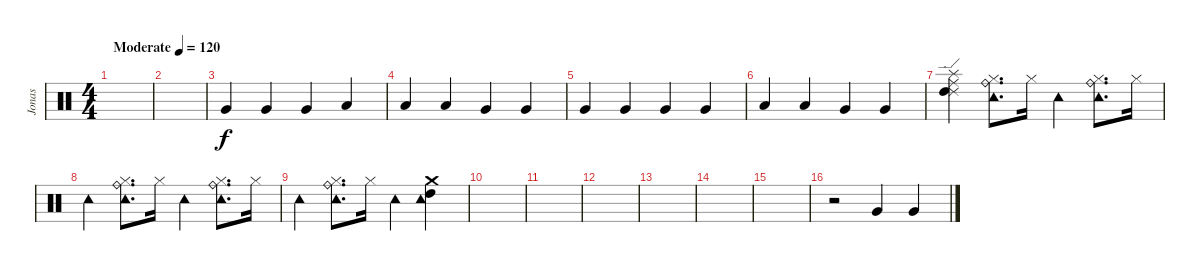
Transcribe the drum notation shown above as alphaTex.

\track ("Jonas" "Jonas") {instrument percussion}
\staff {score}
\articulation defaults
\ts (4 4)
\tempo (120 "Moderate")
\clef neutral
\ks c
|
|
"Very Low Tom (hit)".4 "Very Low Tom (hit)".4 "Very Low Tom (hit)".4 "Low Floor Tom (hit)".4 |
"Low Floor Tom (hit)".4 "Low Floor Tom (hit)".4 "Very Low Tom (hit)".4 "Very Low Tom (hit)".4 |
"Very Low Tom (hit)".4 "Very Low Tom (hit)".4 "Very Low Tom (hit)".4 "Very Low Tom (hit)".4 |
"Low Floor Tom (hit)".4 "Low Floor Tom (hit)".4 "Very Low Tom (hit)".4 "Very Low Tom (hit)".4 |
("Splash (hit)" "Ride (middle)" "Ride (edge) 2" "High Tom (hit)").4 ("Hi-Hat (closed)" "Tambourine (hit)" "Ride (bell)").8{d} "Hi-Hat (closed)".16 "Tambourine (hit)".4 ("Hi-Hat (closed)" "Tambourine (hit)" "Ride (bell)").8{d} "Hi-Hat (closed)".16 |
"Tambourine (hit)".4 ("Hi-Hat (closed)" "Tambourine (hit)" "Ride (bell)").8{d} "Hi-Hat (closed)".16 "Tambourine (hit)".4 ("Hi-Hat (closed)" "Tambourine (hit)" "Ride (bell)").8{d} "Hi-Hat (closed)".16 |
"Tambourine (hit)".4 ("Hi-Hat (closed)" "Tambourine (hit)" "Ride (bell)").8{d} "Hi-Hat (closed)".16 "Tambourine (hit)".4 ("High Tom (hit)" "Crash medium (hit)" "Tambourine (hit)").4 |
|
|
|
|
|
|
r.2 "Very Low Tom (hit)".4 "Very Low Tom (hit)".4
